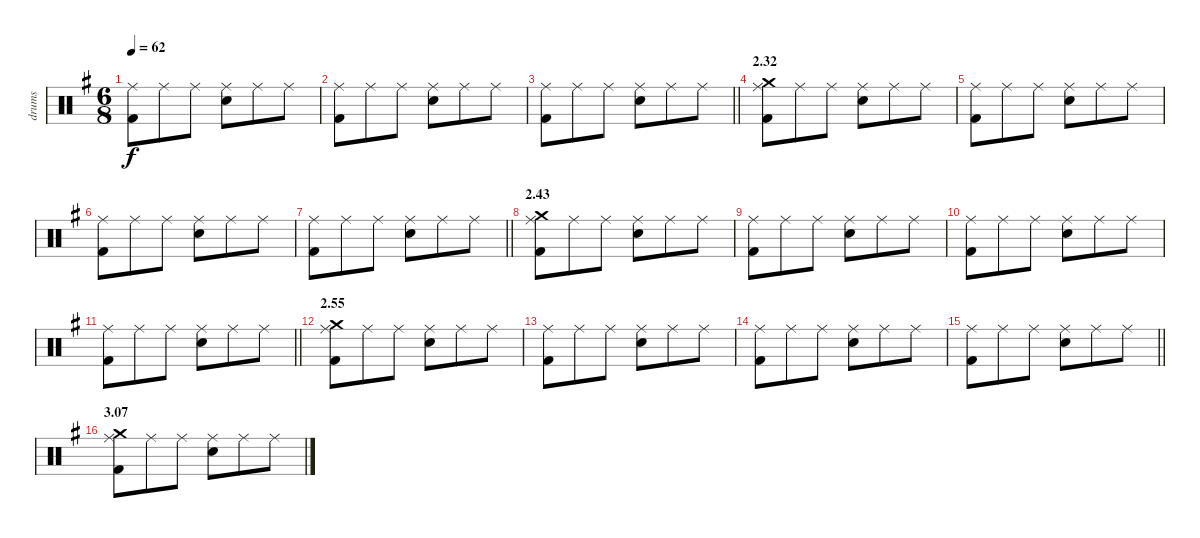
\track ("drums" "drums") {instrument percussion}
\staff {score}
\articulation defaults
\ts (6 8)
\tempo 62
\clef neutral
\ks g
("Ride (middle)" "Kick (hit) 2").8{dy f} "Ride (middle)".8 "Ride (middle)".8 ("Ride (middle)" "Electric Snare (hit)").8 "Ride (middle)".8 "Ride (middle)".8 |
("Ride (middle)" "Kick (hit) 2").8 "Ride (middle)".8 "Ride (middle)".8 ("Ride (middle)" "Electric Snare (hit)").8 "Ride (middle)".8 "Ride (middle)".8 |
\barLineRight lightlight
("Ride (middle)" "Kick (hit) 2").8 "Ride (middle)".8 "Ride (middle)".8 ("Ride (middle)" "Electric Snare (hit)").8 "Ride (middle)".8 "Ride (middle)".8 |
\section ("" "2.32")
("Ride (middle)" "Crash medium (hit)" "Kick (hit) 2").8 "Ride (middle)".8 "Ride (middle)".8 ("Ride (middle)" "Electric Snare (hit)").8 "Ride (middle)".8 "Ride (middle)".8 |
("Ride (middle)" "Kick (hit) 2").8 "Ride (middle)".8 "Ride (middle)".8 ("Ride (middle)" "Electric Snare (hit)").8 "Ride (middle)".8 "Ride (middle)".8 |
("Ride (middle)" "Kick (hit) 2").8 "Ride (middle)".8 "Ride (middle)".8 ("Ride (middle)" "Electric Snare (hit)").8 "Ride (middle)".8 "Ride (middle)".8 |
\barLineRight lightlight
("Ride (middle)" "Kick (hit) 2").8 "Ride (middle)".8 "Ride (middle)".8 ("Ride (middle)" "Electric Snare (hit)").8 "Ride (middle)".8 "Ride (middle)".8 |
\section ("" "2.43")
("Ride (middle)" "Crash medium (hit)" "Kick (hit) 2").8 "Ride (middle)".8 "Ride (middle)".8 ("Ride (middle)" "Electric Snare (hit)").8 "Ride (middle)".8 "Ride (middle)".8 |
("Ride (middle)" "Kick (hit) 2").8 "Ride (middle)".8 "Ride (middle)".8 ("Ride (middle)" "Electric Snare (hit)").8 "Ride (middle)".8 "Ride (middle)".8 |
("Ride (middle)" "Kick (hit) 2").8 "Ride (middle)".8 "Ride (middle)".8 ("Ride (middle)" "Electric Snare (hit)").8 "Ride (middle)".8 "Ride (middle)".8 |
\barLineRight lightlight
("Ride (middle)" "Kick (hit) 2").8 "Ride (middle)".8 "Ride (middle)".8 ("Ride (middle)" "Electric Snare (hit)").8 "Ride (middle)".8 "Ride (middle)".8 |
\section ("" "2.55")
("Ride (middle)" "Crash medium (hit)" "Kick (hit) 2").8 "Ride (middle)".8 "Ride (middle)".8 ("Ride (middle)" "Electric Snare (hit)").8 "Ride (middle)".8 "Ride (middle)".8 |
("Ride (middle)" "Kick (hit) 2").8 "Ride (middle)".8 "Ride (middle)".8 ("Ride (middle)" "Electric Snare (hit)").8 "Ride (middle)".8 "Ride (middle)".8 |
("Ride (middle)" "Kick (hit) 2").8 "Ride (middle)".8 "Ride (middle)".8 ("Ride (middle)" "Electric Snare (hit)").8 "Ride (middle)".8 "Ride (middle)".8 |
\barLineRight lightlight
("Ride (middle)" "Kick (hit) 2").8 "Ride (middle)".8 "Ride (middle)".8 ("Ride (middle)" "Electric Snare (hit)").8 "Ride (middle)".8 "Ride (middle)".8 |
\section ("" "3.07")
("Ride (middle)" "Crash medium (hit)" "Kick (hit) 2").8 "Ride (middle)".8 "Ride (middle)".8 ("Ride (middle)" "Electric Snare (hit)").8 "Ride (middle)".8 "Ride (middle)".8
